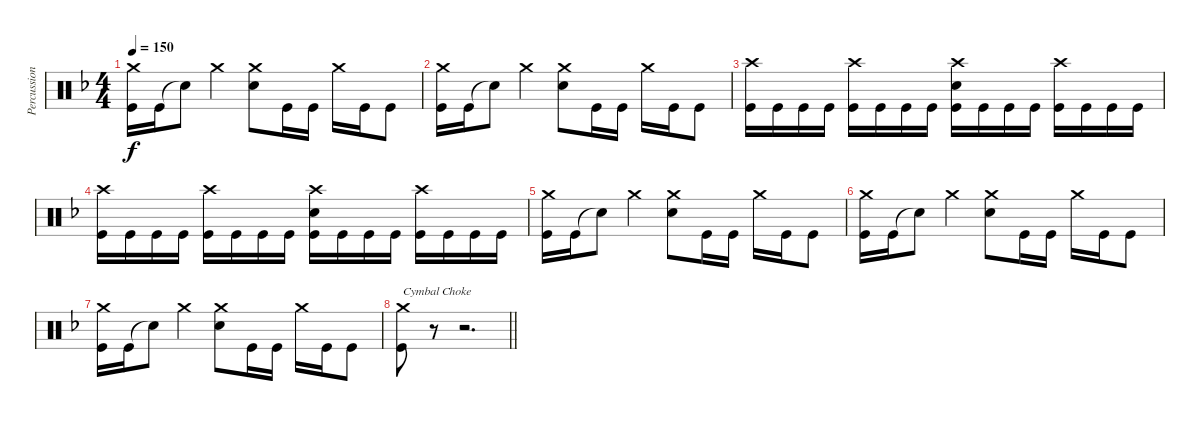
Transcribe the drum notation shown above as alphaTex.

\track ("Percussion" "Percussion") {instrument percussion}
\staff {score}
\articulation defaults
\ts (4 4)
\tempo 150
\clef neutral
\ks f
("Crash medium (hit)" "Kick (hit)").16{dy f} "Kick (hit)".16 "Snare (hit)"{t}.8 "Crash medium (hit)".4 ("Crash medium (hit)" "Electric Snare (hit)").8 "Kick (hit)".16 "Kick (hit)".16 "Crash medium (hit)".16 "Kick (hit)".16 "Kick (hit)".8 |
("Crash medium (hit)" "Kick (hit)").16 "Kick (hit)".16 "Snare (hit)"{t}.8 "Crash medium (hit)".4 ("Crash medium (hit)" "Electric Snare (hit)").8 "Kick (hit)".16 "Kick (hit)".16 "Crash medium (hit)".16 "Kick (hit)".16 "Kick (hit)".8 |
("Crash high (hit)" "Kick (hit)").16 "Kick (hit)".16 "Kick (hit)".16 "Kick (hit)".16 ("Crash high (hit)" "Kick (hit)").16 "Kick (hit)".16 "Kick (hit)".16 "Kick (hit)".16 ("Crash high (hit)" "Electric Snare (hit)" "Kick (hit)").16 "Kick (hit)".16 "Kick (hit)".16 "Kick (hit)".16 ("Crash high (hit)" "Kick (hit)").16 "Kick (hit)".16 "Kick (hit)".16 "Kick (hit)".16 |
("Crash high (hit)" "Kick (hit)").16 "Kick (hit)".16 "Kick (hit)".16 "Kick (hit)".16 ("Crash high (hit)" "Kick (hit)").16 "Kick (hit)".16 "Kick (hit)".16 "Kick (hit)".16 ("Crash high (hit)" "Electric Snare (hit)" "Kick (hit)").16 "Kick (hit)".16 "Kick (hit)".16 "Kick (hit)".16 ("Crash high (hit)" "Kick (hit)").16 "Kick (hit)".16 "Kick (hit)".16 "Kick (hit)".16 |
("Crash medium (hit)" "Kick (hit)").16 "Kick (hit)".16 "Snare (hit)"{t}.8 "Crash medium (hit)".4 ("Crash medium (hit)" "Electric Snare (hit)").8 "Kick (hit)".16 "Kick (hit)".16 "Crash medium (hit)".16 "Kick (hit)".16 "Kick (hit)".8 |
("Crash medium (hit)" "Kick (hit)").16 "Kick (hit)".16 "Snare (hit)"{t}.8 "Crash medium (hit)".4 ("Crash medium (hit)" "Electric Snare (hit)").8 "Kick (hit)".16 "Kick (hit)".16 "Crash medium (hit)".16 "Kick (hit)".16 "Kick (hit)".8 |
("Crash medium (hit)" "Kick (hit)").16 "Kick (hit)".16 "Snare (hit)"{t}.8 "Crash medium (hit)".4 ("Crash medium (hit)" "Electric Snare (hit)").8 "Kick (hit)".16 "Kick (hit)".16 "Crash medium (hit)".16 "Kick (hit)".16 "Kick (hit)".8 |
\barLineRight lightlight
("Crash medium (hit)" "Kick (hit)").8{txt "Cymbal Choke"} r.8{volume 0} r.2{d}
